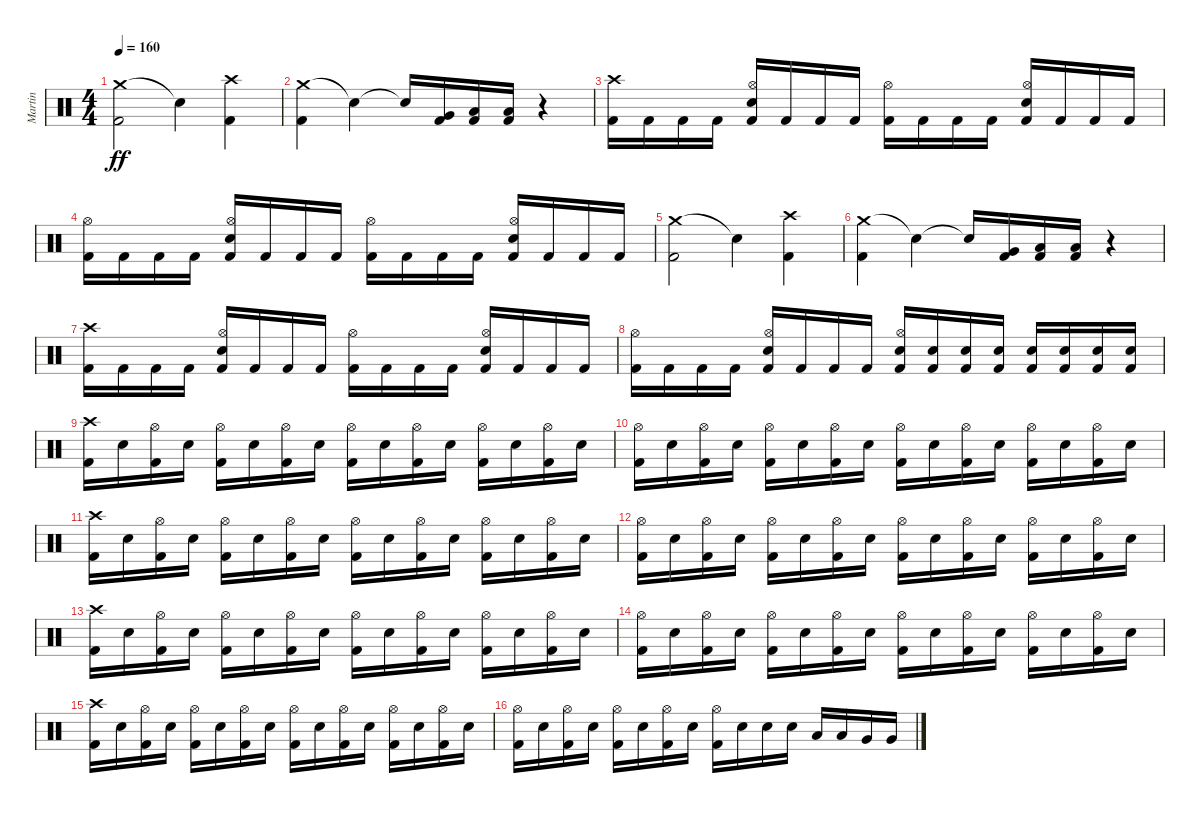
\track ("Martin" "Martin") {instrument percussion}
\staff {score}
\articulation defaults
\ts (4 4)
\tempo 160
\clef neutral
\ks c
("Crash medium (hit)" "Kick (hit) 2").2{dy ff} "Snare (hit)"{t}.4 ("Crash high (hit)" "Kick (hit) 2").4 |
("Crash medium (hit)" "Kick (hit) 2").4 "Snare (hit)"{t}.4 "Snare (hit)"{t}.16 ("Very Low Tom (hit)" "Kick (hit) 2").16 ("Low Floor Tom (hit)" "Kick (hit) 2").16 ("Low Floor Tom (hit)" "Kick (hit) 2").16 r.4 |
("Crash high (hit)" "Kick (hit) 2").16 "Kick (hit) 2".16 "Kick (hit) 2".16 "Kick (hit) 2".16 ("Hi-Hat (open)" "Electric Snare (hit)" "Kick (hit) 2").16 "Kick (hit) 2".16 "Kick (hit) 2".16 "Kick (hit) 2".16 ("Hi-Hat (open)" "Kick (hit) 2").16 "Kick (hit) 2".16 "Kick (hit) 2".16 "Kick (hit) 2".16 ("Hi-Hat (open)" "Electric Snare (hit)" "Kick (hit) 2").16 "Kick (hit) 2".16 "Kick (hit) 2".16 "Kick (hit) 2".16 |
("Hi-Hat (open)" "Kick (hit) 2").16 "Kick (hit) 2".16 "Kick (hit) 2".16 "Kick (hit) 2".16 ("Hi-Hat (open)" "Electric Snare (hit)" "Kick (hit) 2").16 "Kick (hit) 2".16 "Kick (hit) 2".16 "Kick (hit) 2".16 ("Hi-Hat (open)" "Kick (hit) 2").16 "Kick (hit) 2".16 "Kick (hit) 2".16 "Kick (hit) 2".16 ("Hi-Hat (open)" "Electric Snare (hit)" "Kick (hit) 2").16 "Kick (hit) 2".16 "Kick (hit) 2".16 "Kick (hit) 2".16 |
("Crash medium (hit)" "Kick (hit) 2").2 "Snare (hit)"{t}.4 ("Crash high (hit)" "Kick (hit) 2").4 |
("Crash medium (hit)" "Kick (hit) 2").4 "Snare (hit)"{t}.4 "Snare (hit)"{t}.16 ("Very Low Tom (hit)" "Kick (hit) 2").16 ("Low Floor Tom (hit)" "Kick (hit) 2").16 ("Low Floor Tom (hit)" "Kick (hit) 2").16 r.4 |
("Crash high (hit)" "Kick (hit) 2").16 "Kick (hit) 2".16 "Kick (hit) 2".16 "Kick (hit) 2".16 ("Hi-Hat (open)" "Electric Snare (hit)" "Kick (hit) 2").16 "Kick (hit) 2".16 "Kick (hit) 2".16 "Kick (hit) 2".16 ("Hi-Hat (open)" "Kick (hit) 2").16 "Kick (hit) 2".16 "Kick (hit) 2".16 "Kick (hit) 2".16 ("Hi-Hat (open)" "Electric Snare (hit)" "Kick (hit) 2").16 "Kick (hit) 2".16 "Kick (hit) 2".16 "Kick (hit) 2".16 |
("Hi-Hat (open)" "Kick (hit) 2").16 "Kick (hit) 2".16 "Kick (hit) 2".16 "Kick (hit) 2".16 ("Hi-Hat (open)" "Electric Snare (hit)" "Kick (hit) 2").16 "Kick (hit) 2".16 "Kick (hit) 2".16 "Kick (hit) 2".16 ("Hi-Hat (open)" "Electric Snare (hit)" "Kick (hit) 2").16 ("Electric Snare (hit)" "Kick (hit) 2").16 ("Electric Snare (hit)" "Kick (hit) 2").16 ("Electric Snare (hit)" "Kick (hit) 2").16 ("Electric Snare (hit)" "Kick (hit) 2").16 ("Electric Snare (hit)" "Kick (hit) 2").16 ("Electric Snare (hit)" "Kick (hit) 2").16 ("Electric Snare (hit)" "Kick (hit) 2").16 |
("Crash high (hit)" "Kick (hit) 2").16 "Electric Snare (hit)".16 ("Hi-Hat (open)" "Kick (hit) 2").16 "Electric Snare (hit)".16 ("Hi-Hat (open)" "Kick (hit) 2").16 "Electric Snare (hit)".16 ("Hi-Hat (open)" "Kick (hit) 2").16 "Electric Snare (hit)".16 ("Hi-Hat (open)" "Kick (hit) 2").16 "Electric Snare (hit)".16 ("Hi-Hat (open)" "Kick (hit) 2").16 "Electric Snare (hit)".16 ("Hi-Hat (open)" "Kick (hit) 2").16 "Electric Snare (hit)".16 ("Hi-Hat (open)" "Kick (hit) 2").16 "Electric Snare (hit)".16 |
("Hi-Hat (open)" "Kick (hit) 2").16 "Electric Snare (hit)".16 ("Hi-Hat (open)" "Kick (hit) 2").16 "Electric Snare (hit)".16 ("Hi-Hat (open)" "Kick (hit) 2").16 "Electric Snare (hit)".16 ("Hi-Hat (open)" "Kick (hit) 2").16 "Electric Snare (hit)".16 ("Hi-Hat (open)" "Kick (hit) 2").16 "Electric Snare (hit)".16 ("Hi-Hat (open)" "Kick (hit) 2").16 "Electric Snare (hit)".16 ("Hi-Hat (open)" "Kick (hit) 2").16 "Electric Snare (hit)".16 ("Hi-Hat (open)" "Kick (hit) 2").16 "Electric Snare (hit)".16 |
("Crash high (hit)" "Kick (hit) 2").16 "Electric Snare (hit)".16 ("Hi-Hat (open)" "Kick (hit) 2").16 "Electric Snare (hit)".16 ("Hi-Hat (open)" "Kick (hit) 2").16 "Electric Snare (hit)".16 ("Hi-Hat (open)" "Kick (hit) 2").16 "Electric Snare (hit)".16 ("Hi-Hat (open)" "Kick (hit) 2").16 "Electric Snare (hit)".16 ("Hi-Hat (open)" "Kick (hit) 2").16 "Electric Snare (hit)".16 ("Hi-Hat (open)" "Kick (hit) 2").16 "Electric Snare (hit)".16 ("Hi-Hat (open)" "Kick (hit) 2").16 "Electric Snare (hit)".16 |
("Hi-Hat (open)" "Kick (hit) 2").16 "Electric Snare (hit)".16 ("Hi-Hat (open)" "Kick (hit) 2").16 "Electric Snare (hit)".16 ("Hi-Hat (open)" "Kick (hit) 2").16 "Electric Snare (hit)".16 ("Hi-Hat (open)" "Kick (hit) 2").16 "Electric Snare (hit)".16 ("Hi-Hat (open)" "Kick (hit) 2").16 "Electric Snare (hit)".16 ("Hi-Hat (open)" "Kick (hit) 2").16 "Electric Snare (hit)".16 ("Hi-Hat (open)" "Kick (hit) 2").16 "Electric Snare (hit)".16 ("Hi-Hat (open)" "Kick (hit) 2").16 "Electric Snare (hit)".16 |
("Crash high (hit)" "Kick (hit) 2").16 "Electric Snare (hit)".16 ("Hi-Hat (open)" "Kick (hit) 2").16 "Electric Snare (hit)".16 ("Hi-Hat (open)" "Kick (hit) 2").16 "Electric Snare (hit)".16 ("Hi-Hat (open)" "Kick (hit) 2").16 "Electric Snare (hit)".16 ("Hi-Hat (open)" "Kick (hit) 2").16 "Electric Snare (hit)".16 ("Hi-Hat (open)" "Kick (hit) 2").16 "Electric Snare (hit)".16 ("Hi-Hat (open)" "Kick (hit) 2").16 "Electric Snare (hit)".16 ("Hi-Hat (open)" "Kick (hit) 2").16 "Electric Snare (hit)".16 |
("Hi-Hat (open)" "Kick (hit) 2").16 "Electric Snare (hit)".16 ("Hi-Hat (open)" "Kick (hit) 2").16 "Electric Snare (hit)".16 ("Hi-Hat (open)" "Kick (hit) 2").16 "Electric Snare (hit)".16 ("Hi-Hat (open)" "Kick (hit) 2").16 "Electric Snare (hit)".16 ("Hi-Hat (open)" "Kick (hit) 2").16 "Electric Snare (hit)".16 ("Hi-Hat (open)" "Kick (hit) 2").16 "Electric Snare (hit)".16 ("Hi-Hat (open)" "Kick (hit) 2").16 "Electric Snare (hit)".16 ("Hi-Hat (open)" "Kick (hit) 2").16 "Electric Snare (hit)".16 |
("Crash high (hit)" "Kick (hit) 2").16 "Electric Snare (hit)".16 ("Hi-Hat (open)" "Kick (hit) 2").16 "Electric Snare (hit)".16 ("Hi-Hat (open)" "Kick (hit) 2").16 "Electric Snare (hit)".16 ("Hi-Hat (open)" "Kick (hit) 2").16 "Electric Snare (hit)".16 ("Hi-Hat (open)" "Kick (hit) 2").16 "Electric Snare (hit)".16 ("Hi-Hat (open)" "Kick (hit) 2").16 "Electric Snare (hit)".16 ("Hi-Hat (open)" "Kick (hit) 2").16 "Electric Snare (hit)".16 ("Hi-Hat (open)" "Kick (hit) 2").16 "Electric Snare (hit)".16 |
("Hi-Hat (open)" "Kick (hit) 2").16 "Electric Snare (hit)".16 ("Hi-Hat (open)" "Kick (hit) 2").16 "Electric Snare (hit)".16 ("Hi-Hat (open)" "Kick (hit) 2").16 "Electric Snare (hit)".16 ("Hi-Hat (open)" "Kick (hit) 2").16 "Electric Snare (hit)".16 ("Hi-Hat (open)" "Kick (hit) 2").16 "Electric Snare (hit)".16 "Electric Snare (hit)".16 "Electric Snare (hit)".16 "Low Tom (hit)".16 "Low Tom (hit)".16 "Very Low Tom (hit)".16 "Very Low Tom (hit)".16
